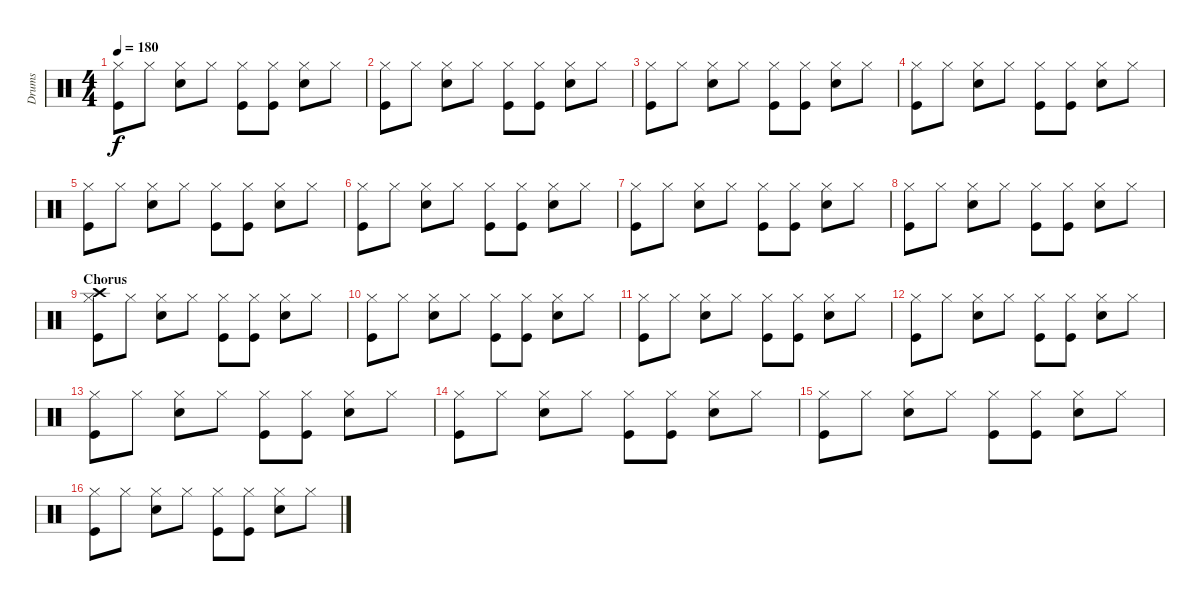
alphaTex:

\track ("Drums" "Drums") {instrument percussion}
\staff {score}
\articulation defaults
\ts (4 4)
\tempo 180
\clef neutral
\ks c
("Hi-Hat (closed)" "Kick (hit)").8{dy f} "Hi-Hat (closed)".8 ("Hi-Hat (closed)" "Electric Snare (hit)").8 "Hi-Hat (closed)".8 ("Kick (hit)" "Hi-Hat (closed)").8 ("Hi-Hat (closed)" "Kick (hit)").8 ("Hi-Hat (closed)" "Electric Snare (hit)").8 "Hi-Hat (closed)".8 |
("Hi-Hat (closed)" "Kick (hit)").8 "Hi-Hat (closed)".8 ("Hi-Hat (closed)" "Electric Snare (hit)").8 "Hi-Hat (closed)".8 ("Kick (hit)" "Hi-Hat (closed)").8 ("Hi-Hat (closed)" "Kick (hit)").8 ("Hi-Hat (closed)" "Electric Snare (hit)").8 "Hi-Hat (closed)".8 |
("Hi-Hat (closed)" "Kick (hit)").8 "Hi-Hat (closed)".8 ("Hi-Hat (closed)" "Electric Snare (hit)").8 "Hi-Hat (closed)".8 ("Kick (hit)" "Hi-Hat (closed)").8 ("Hi-Hat (closed)" "Kick (hit)").8 ("Hi-Hat (closed)" "Electric Snare (hit)").8 "Hi-Hat (closed)".8 |
("Hi-Hat (closed)" "Kick (hit)").8 "Hi-Hat (closed)".8 ("Hi-Hat (closed)" "Electric Snare (hit)").8 "Hi-Hat (closed)".8 ("Kick (hit)" "Hi-Hat (closed)").8 ("Hi-Hat (closed)" "Kick (hit)").8 ("Hi-Hat (closed)" "Electric Snare (hit)").8 "Hi-Hat (closed)".8 |
("Hi-Hat (closed)" "Kick (hit)").8 "Hi-Hat (closed)".8 ("Hi-Hat (closed)" "Electric Snare (hit)").8 "Hi-Hat (closed)".8 ("Kick (hit)" "Hi-Hat (closed)").8 ("Hi-Hat (closed)" "Kick (hit)").8 ("Hi-Hat (closed)" "Electric Snare (hit)").8 "Hi-Hat (closed)".8 |
("Hi-Hat (closed)" "Kick (hit)").8 "Hi-Hat (closed)".8 ("Hi-Hat (closed)" "Electric Snare (hit)").8 "Hi-Hat (closed)".8 ("Kick (hit)" "Hi-Hat (closed)").8 ("Hi-Hat (closed)" "Kick (hit)").8 ("Hi-Hat (closed)" "Electric Snare (hit)").8 "Hi-Hat (closed)".8 |
("Hi-Hat (closed)" "Kick (hit)").8 "Hi-Hat (closed)".8 ("Hi-Hat (closed)" "Electric Snare (hit)").8 "Hi-Hat (closed)".8 ("Kick (hit)" "Hi-Hat (closed)").8 ("Hi-Hat (closed)" "Kick (hit)").8 ("Hi-Hat (closed)" "Electric Snare (hit)").8 "Hi-Hat (closed)".8 |
("Hi-Hat (closed)" "Kick (hit)").8 "Hi-Hat (closed)".8 ("Hi-Hat (closed)" "Electric Snare (hit)").8 "Hi-Hat (closed)".8 ("Kick (hit)" "Hi-Hat (closed)").8 ("Hi-Hat (closed)" "Kick (hit)").8 ("Hi-Hat (closed)" "Electric Snare (hit)").8 "Hi-Hat (closed)".8 |
\section ("" "Chorus")
("Crash high (hit)" "Hi-Hat (closed)" "Kick (hit)").8 "Hi-Hat (closed)".8 ("Hi-Hat (closed)" "Electric Snare (hit)").8 "Hi-Hat (closed)".8 ("Kick (hit)" "Hi-Hat (closed)").8 ("Hi-Hat (closed)" "Kick (hit)").8 ("Hi-Hat (closed)" "Electric Snare (hit)").8 "Hi-Hat (closed)".8 |
("Hi-Hat (closed)" "Kick (hit)").8 "Hi-Hat (closed)".8 ("Hi-Hat (closed)" "Electric Snare (hit)").8 "Hi-Hat (closed)".8 ("Kick (hit)" "Hi-Hat (closed)").8 ("Hi-Hat (closed)" "Kick (hit)").8 ("Hi-Hat (closed)" "Electric Snare (hit)").8 "Hi-Hat (closed)".8 |
("Hi-Hat (closed)" "Kick (hit)").8 "Hi-Hat (closed)".8 ("Hi-Hat (closed)" "Electric Snare (hit)").8 "Hi-Hat (closed)".8 ("Kick (hit)" "Hi-Hat (closed)").8 ("Hi-Hat (closed)" "Kick (hit)").8 ("Hi-Hat (closed)" "Electric Snare (hit)").8 "Hi-Hat (closed)".8 |
("Hi-Hat (closed)" "Kick (hit)").8 "Hi-Hat (closed)".8 ("Hi-Hat (closed)" "Electric Snare (hit)").8 "Hi-Hat (closed)".8 ("Kick (hit)" "Hi-Hat (closed)").8 ("Hi-Hat (closed)" "Kick (hit)").8 ("Hi-Hat (closed)" "Electric Snare (hit)").8 "Hi-Hat (closed)".8 |
("Hi-Hat (closed)" "Kick (hit)").8 "Hi-Hat (closed)".8 ("Hi-Hat (closed)" "Electric Snare (hit)").8 "Hi-Hat (closed)".8 ("Kick (hit)" "Hi-Hat (closed)").8 ("Hi-Hat (closed)" "Kick (hit)").8 ("Hi-Hat (closed)" "Electric Snare (hit)").8 "Hi-Hat (closed)".8 |
("Hi-Hat (closed)" "Kick (hit)").8 "Hi-Hat (closed)".8 ("Hi-Hat (closed)" "Electric Snare (hit)").8 "Hi-Hat (closed)".8 ("Kick (hit)" "Hi-Hat (closed)").8 ("Hi-Hat (closed)" "Kick (hit)").8 ("Hi-Hat (closed)" "Electric Snare (hit)").8 "Hi-Hat (closed)".8 |
("Hi-Hat (closed)" "Kick (hit)").8 "Hi-Hat (closed)".8 ("Hi-Hat (closed)" "Electric Snare (hit)").8 "Hi-Hat (closed)".8 ("Kick (hit)" "Hi-Hat (closed)").8 ("Hi-Hat (closed)" "Kick (hit)").8 ("Hi-Hat (closed)" "Electric Snare (hit)").8 "Hi-Hat (closed)".8 |
("Hi-Hat (closed)" "Kick (hit)").8 "Hi-Hat (closed)".8 ("Hi-Hat (closed)" "Electric Snare (hit)").8 "Hi-Hat (closed)".8 ("Kick (hit)" "Hi-Hat (closed)").8 ("Hi-Hat (closed)" "Kick (hit)").8 ("Hi-Hat (closed)" "Electric Snare (hit)").8 "Hi-Hat (closed)".8
